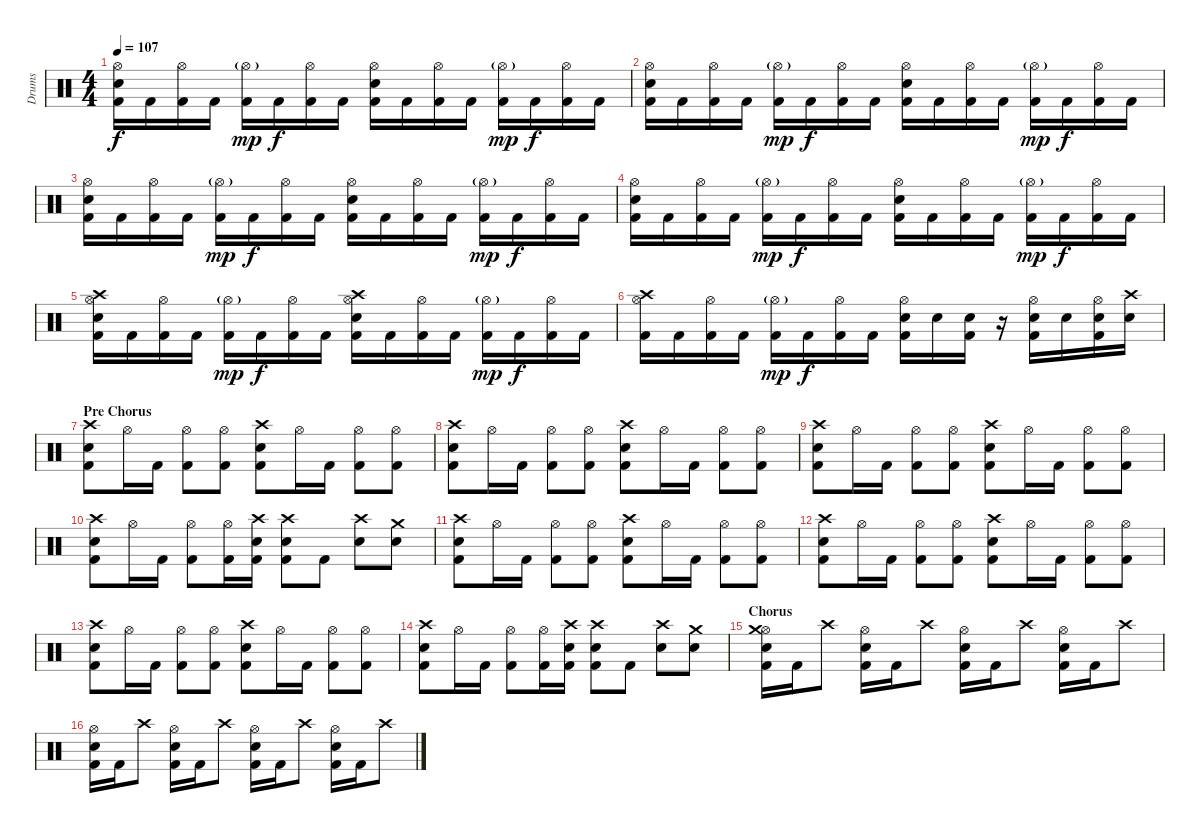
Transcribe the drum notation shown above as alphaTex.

\track ("Drums" "Drums") {instrument percussion}
\staff {score}
\articulation defaults
\ts (4 4)
\tempo 107
\clef neutral
\ks c
("Hi-Hat (open)" "Snare (hit) 2" "Kick (hit) 2").16{dy f} "Kick (hit) 2".16 ("Hi-Hat (open)" "Kick (hit) 2").16 "Kick (hit) 2".16 ("Hi-Hat (open)"{g} "Kick (hit) 2").16{dy mp} "Kick (hit) 2".16{dy f} ("Hi-Hat (open)" "Kick (hit) 2").16 "Kick (hit) 2".16 ("Hi-Hat (open)" "Snare (hit) 2" "Kick (hit) 2").16 "Kick (hit) 2".16 ("Hi-Hat (open)" "Kick (hit) 2").16 "Kick (hit) 2".16 ("Hi-Hat (open)"{g} "Kick (hit) 2").16{dy mp} "Kick (hit) 2".16{dy f} ("Hi-Hat (open)" "Kick (hit) 2").16 "Kick (hit) 2".16 |
("Hi-Hat (open)" "Snare (hit) 2" "Kick (hit) 2").16 "Kick (hit) 2".16 ("Hi-Hat (open)" "Kick (hit) 2").16 "Kick (hit) 2".16 ("Hi-Hat (open)"{g} "Kick (hit) 2").16{dy mp} "Kick (hit) 2".16{dy f} ("Hi-Hat (open)" "Kick (hit) 2").16 "Kick (hit) 2".16 ("Hi-Hat (open)" "Snare (hit) 2" "Kick (hit) 2").16 "Kick (hit) 2".16 ("Hi-Hat (open)" "Kick (hit) 2").16 "Kick (hit) 2".16 ("Hi-Hat (open)"{g} "Kick (hit) 2").16{dy mp} "Kick (hit) 2".16{dy f} ("Hi-Hat (open)" "Kick (hit) 2").16 "Kick (hit) 2".16 |
("Hi-Hat (open)" "Snare (hit) 2" "Kick (hit) 2").16 "Kick (hit) 2".16 ("Hi-Hat (open)" "Kick (hit) 2").16 "Kick (hit) 2".16 ("Hi-Hat (open)"{g} "Kick (hit) 2").16{dy mp} "Kick (hit) 2".16{dy f} ("Hi-Hat (open)" "Kick (hit) 2").16 "Kick (hit) 2".16 ("Hi-Hat (open)" "Snare (hit) 2" "Kick (hit) 2").16 "Kick (hit) 2".16 ("Hi-Hat (open)" "Kick (hit) 2").16 "Kick (hit) 2".16 ("Hi-Hat (open)"{g} "Kick (hit) 2").16{dy mp} "Kick (hit) 2".16{dy f} ("Hi-Hat (open)" "Kick (hit) 2").16 "Kick (hit) 2".16 |
("Hi-Hat (open)" "Snare (hit) 2" "Kick (hit) 2").16 "Kick (hit) 2".16 ("Hi-Hat (open)" "Kick (hit) 2").16 "Kick (hit) 2".16 ("Hi-Hat (open)"{g} "Kick (hit) 2").16{dy mp} "Kick (hit) 2".16{dy f} ("Hi-Hat (open)" "Kick (hit) 2").16 "Kick (hit) 2".16 ("Hi-Hat (open)" "Snare (hit) 2" "Kick (hit) 2").16 "Kick (hit) 2".16 ("Hi-Hat (open)" "Kick (hit) 2").16 "Kick (hit) 2".16 ("Hi-Hat (open)"{g} "Kick (hit) 2").16{dy mp} "Kick (hit) 2".16{dy f} ("Hi-Hat (open)" "Kick (hit) 2").16 "Kick (hit) 2".16 |
("Hi-Hat (open)" "Crash high (hit)" "Snare (hit) 2" "Kick (hit) 2").16 "Kick (hit) 2".16 ("Hi-Hat (open)" "Kick (hit) 2").16 "Kick (hit) 2".16 ("Hi-Hat (open)"{g} "Kick (hit) 2").16{dy mp} "Kick (hit) 2".16{dy f} ("Hi-Hat (open)" "Kick (hit) 2").16 "Kick (hit) 2".16 ("Hi-Hat (open)" "Crash high (hit)" "Snare (hit) 2" "Kick (hit) 2").16 "Kick (hit) 2".16 ("Hi-Hat (open)" "Kick (hit) 2").16 "Kick (hit) 2".16 ("Hi-Hat (open)"{g} "Kick (hit) 2").16{dy mp} "Kick (hit) 2".16{dy f} ("Hi-Hat (open)" "Kick (hit) 2").16 "Kick (hit) 2".16 |
("Hi-Hat (open)" "Crash high (hit)" "Kick (hit) 2").16 "Kick (hit) 2".16 ("Hi-Hat (open)" "Kick (hit) 2").16 "Kick (hit) 2".16 ("Hi-Hat (open)"{g} "Kick (hit) 2").16{dy mp} "Kick (hit) 2".16{dy f} ("Hi-Hat (open)" "Kick (hit) 2").16 "Kick (hit) 2".16 ("Hi-Hat (open)" "Snare (hit) 2" "Kick (hit) 2").16 "Snare (hit) 2".16 ("Snare (hit) 2" "Kick (hit) 2").16 r.16 ("Hi-Hat (open)" "Electric Snare (hit)" "Kick (hit) 2").16 "Electric Snare (hit)".16 ("Hi-Hat (open)" "Electric Snare (hit)" "Kick (hit) 2").16 ("Crash high (hit)" "Snare (hit) 2").16 |
\section ("" "Pre Chorus")
("Crash high (hit)" "Snare (hit) 2" "Kick (hit) 2").8 "Hi-Hat (open)".16 "Kick (hit) 2".16 ("Hi-Hat (open)" "Kick (hit) 2").8 ("Hi-Hat (open)" "Kick (hit) 2").8 ("Crash high (hit)" "Snare (hit) 2" "Kick (hit) 2").8 "Hi-Hat (open)".16 "Kick (hit) 2".16 ("Hi-Hat (open)" "Kick (hit) 2").8 ("Hi-Hat (open)" "Kick (hit) 2").8 |
("Crash high (hit)" "Snare (hit) 2" "Kick (hit) 2").8 "Hi-Hat (open)".16 "Kick (hit) 2".16 ("Hi-Hat (open)" "Kick (hit) 2").8 ("Hi-Hat (open)" "Kick (hit) 2").8 ("Crash high (hit)" "Snare (hit) 2" "Kick (hit) 2").8 "Hi-Hat (open)".16 "Kick (hit) 2".16 ("Hi-Hat (open)" "Kick (hit) 2").8 ("Hi-Hat (open)" "Kick (hit) 2").8 |
("Crash high (hit)" "Snare (hit) 2" "Kick (hit) 2").8 "Hi-Hat (open)".16 "Kick (hit) 2".16 ("Hi-Hat (open)" "Kick (hit) 2").8 ("Hi-Hat (open)" "Kick (hit) 2").8 ("Crash high (hit)" "Snare (hit) 2" "Kick (hit) 2").8 "Hi-Hat (open)".16 "Kick (hit) 2".16 ("Hi-Hat (open)" "Kick (hit) 2").8 ("Hi-Hat (open)" "Kick (hit) 2").8 |
("Crash high (hit)" "Snare (hit) 2" "Kick (hit) 2").8 "Hi-Hat (open)".16 "Kick (hit) 2".16 ("Hi-Hat (open)" "Kick (hit) 2").8 ("Hi-Hat (open)" "Kick (hit) 2").16 ("Crash high (hit)" "Snare (hit) 2" "Kick (hit) 2").16 ("Crash high (hit)" "Snare (hit) 2" "Kick (hit) 2").8 "Kick (hit) 2".8 ("Crash high (hit)" "Snare (hit) 2").8 ("Crash medium (hit)" "Snare (hit) 2").8 |
("Crash high (hit)" "Snare (hit) 2" "Kick (hit) 2").8 "Hi-Hat (open)".16 "Kick (hit) 2".16 ("Hi-Hat (open)" "Kick (hit) 2").8 ("Hi-Hat (open)" "Kick (hit) 2").8 ("Crash high (hit)" "Snare (hit) 2" "Kick (hit) 2").8 "Hi-Hat (open)".16 "Kick (hit) 2".16 ("Hi-Hat (open)" "Kick (hit) 2").8 ("Hi-Hat (open)" "Kick (hit) 2").8 |
("Crash high (hit)" "Snare (hit) 2" "Kick (hit) 2").8 "Hi-Hat (open)".16 "Kick (hit) 2".16 ("Hi-Hat (open)" "Kick (hit) 2").8 ("Hi-Hat (open)" "Kick (hit) 2").8 ("Crash high (hit)" "Snare (hit) 2" "Kick (hit) 2").8 "Hi-Hat (open)".16 "Kick (hit) 2".16 ("Hi-Hat (open)" "Kick (hit) 2").8 ("Hi-Hat (open)" "Kick (hit) 2").8 |
("Crash high (hit)" "Snare (hit) 2" "Kick (hit) 2").8 "Hi-Hat (open)".16 "Kick (hit) 2".16 ("Hi-Hat (open)" "Kick (hit) 2").8 ("Hi-Hat (open)" "Kick (hit) 2").8 ("Crash high (hit)" "Snare (hit) 2" "Kick (hit) 2").8 "Hi-Hat (open)".16 "Kick (hit) 2".16 ("Hi-Hat (open)" "Kick (hit) 2").8 ("Hi-Hat (open)" "Kick (hit) 2").8 |
("Crash high (hit)" "Snare (hit) 2" "Kick (hit) 2").8 "Hi-Hat (open)".16 "Kick (hit) 2".16 ("Hi-Hat (open)" "Kick (hit) 2").8 ("Hi-Hat (open)" "Kick (hit) 2").16 ("Crash high (hit)" "Snare (hit) 2" "Kick (hit) 2").16 ("Crash high (hit)" "Snare (hit) 2" "Kick (hit) 2").8 "Kick (hit) 2".8 ("Crash high (hit)" "Snare (hit) 2").8 ("Crash medium (hit)" "Snare (hit) 2").8 |
\section ("" "Chorus")
("Hi-Hat (open)" "Snare (hit) 2" "Kick (hit) 2" "Crash medium (hit)").16 "Kick (hit) 2".16 "Crash high (hit)".8 ("Hi-Hat (open)" "Snare (hit) 2" "Kick (hit) 2").16 "Kick (hit) 2".16 "Crash high (hit)".8 ("Hi-Hat (open)" "Snare (hit) 2" "Kick (hit) 2").16 "Kick (hit) 2".16 "Crash high (hit)".8 ("Hi-Hat (open)" "Snare (hit) 2" "Kick (hit) 2").16 "Kick (hit) 2".16 "Crash high (hit)".8 |
("Hi-Hat (open)" "Snare (hit) 2" "Kick (hit) 2").16 "Kick (hit) 2".16 "Crash high (hit)".8 ("Hi-Hat (open)" "Snare (hit) 2" "Kick (hit) 2").16 "Kick (hit) 2".16 "Crash high (hit)".8 ("Hi-Hat (open)" "Snare (hit) 2" "Kick (hit) 2").16 "Kick (hit) 2".16 "Crash high (hit)".8 ("Hi-Hat (open)" "Snare (hit) 2" "Kick (hit) 2").16 "Kick (hit) 2".16 "Crash high (hit)".8
